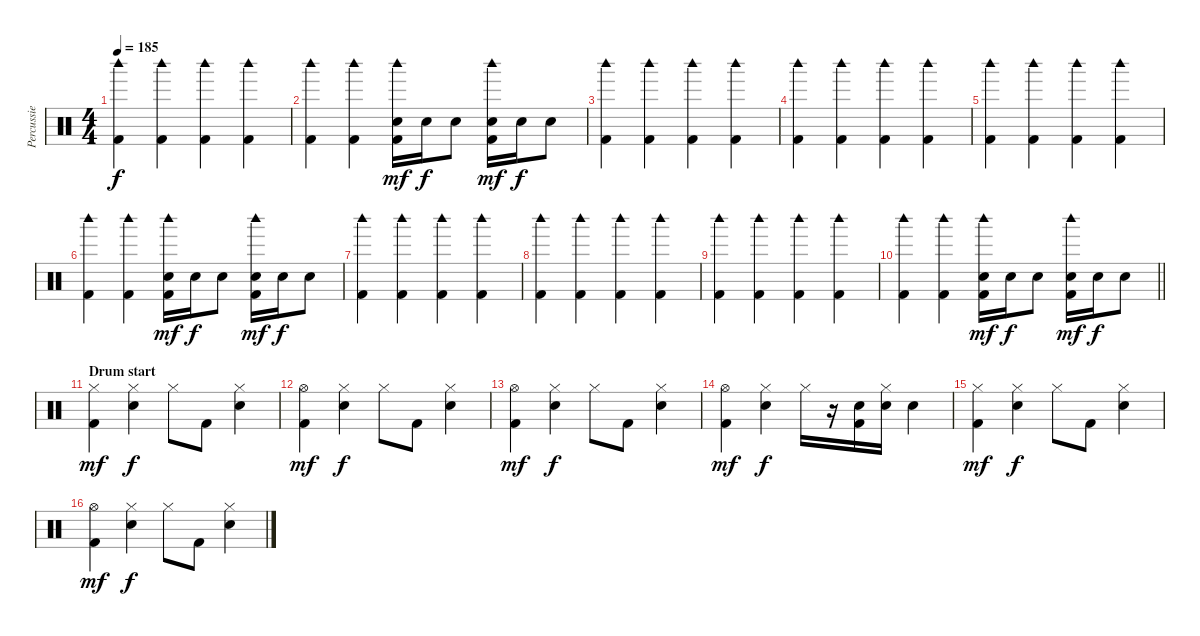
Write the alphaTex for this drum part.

\track ("Percussie" "Percussie") {instrument percussion}
\staff {score}
\articulation defaults
\ts (4 4)
\tempo 185
\clef neutral
\ks c
("Woodblock high (hit)" "Kick (hit) 2").4{dy f} ("Woodblock high (hit)" "Kick (hit) 2").4 ("Woodblock high (hit)" "Kick (hit) 2").4 ("Woodblock high (hit)" "Kick (hit) 2").4 |
("Woodblock high (hit)" "Kick (hit) 2").4 ("Woodblock high (hit)" "Kick (hit) 2").4 ("Woodblock high (hit)" "Electric Snare (hit)" "Kick (hit) 2").16{dy mf} "Electric Snare (hit)".16{dy f} "Electric Snare (hit)".8 ("Woodblock high (hit)" "Electric Snare (hit)" "Kick (hit) 2").16{dy mf} "Electric Snare (hit)".16{dy f} "Electric Snare (hit)".8 |
("Woodblock high (hit)" "Kick (hit) 2").4 ("Woodblock high (hit)" "Kick (hit) 2").4 ("Woodblock high (hit)" "Kick (hit) 2").4 ("Woodblock high (hit)" "Kick (hit) 2").4 |
("Woodblock high (hit)" "Kick (hit) 2").4 ("Woodblock high (hit)" "Kick (hit) 2").4 ("Woodblock high (hit)" "Kick (hit) 2").4 ("Woodblock high (hit)" "Kick (hit) 2").4 |
("Woodblock high (hit)" "Kick (hit) 2").4 ("Woodblock high (hit)" "Kick (hit) 2").4 ("Woodblock high (hit)" "Kick (hit) 2").4 ("Woodblock high (hit)" "Kick (hit) 2").4 |
("Woodblock high (hit)" "Kick (hit) 2").4 ("Woodblock high (hit)" "Kick (hit) 2").4 ("Woodblock high (hit)" "Electric Snare (hit)" "Kick (hit) 2").16{dy mf} "Electric Snare (hit)".16{dy f} "Electric Snare (hit)".8 ("Woodblock high (hit)" "Electric Snare (hit)" "Kick (hit) 2").16{dy mf} "Electric Snare (hit)".16{dy f} "Electric Snare (hit)".8 |
("Woodblock high (hit)" "Kick (hit) 2").4 ("Woodblock high (hit)" "Kick (hit) 2").4 ("Woodblock high (hit)" "Kick (hit) 2").4 ("Woodblock high (hit)" "Kick (hit) 2").4 |
("Woodblock high (hit)" "Kick (hit) 2").4 ("Woodblock high (hit)" "Kick (hit) 2").4 ("Woodblock high (hit)" "Kick (hit) 2").4 ("Woodblock high (hit)" "Kick (hit) 2").4 |
("Woodblock high (hit)" "Kick (hit) 2").4 ("Woodblock high (hit)" "Kick (hit) 2").4 ("Woodblock high (hit)" "Kick (hit) 2").4 ("Woodblock high (hit)" "Kick (hit) 2").4 |
\barLineRight lightlight
("Woodblock high (hit)" "Kick (hit) 2").4 ("Woodblock high (hit)" "Kick (hit) 2").4 ("Woodblock high (hit)" "Electric Snare (hit)" "Kick (hit) 2").16{dy mf} "Electric Snare (hit)".16{dy f} "Electric Snare (hit)".8 ("Woodblock high (hit)" "Electric Snare (hit)" "Kick (hit) 2").16{dy mf} "Electric Snare (hit)".16{dy f} "Electric Snare (hit)".8 |
\section ("" "Drum start")
("Hi-Hat (closed)" "Kick (hit) 2").4{dy mf} ("Hi-Hat (closed)" "Electric Snare (hit)").4{dy f} "Hi-Hat (closed)".8 "Kick (hit) 2".8 ("Hi-Hat (closed)" "Electric Snare (hit)").4 |
("Hi-Hat (open)" "Kick (hit) 2").4{dy mf} ("Hi-Hat (closed)" "Electric Snare (hit)").4{dy f} "Hi-Hat (closed)".8 "Kick (hit) 2".8 ("Hi-Hat (closed)" "Electric Snare (hit)").4 |
("Hi-Hat (open)" "Kick (hit) 2").4{dy mf} ("Hi-Hat (closed)" "Electric Snare (hit)").4{dy f} "Hi-Hat (closed)".8 "Kick (hit) 2".8 ("Hi-Hat (closed)" "Electric Snare (hit)").4 |
("Hi-Hat (open)" "Kick (hit) 2").4{dy mf} ("Hi-Hat (closed)" "Electric Snare (hit)").4{dy f} "Hi-Hat (closed)".16 r.16 ("Electric Snare (hit)" "Kick (hit) 2").16 ("Hi-Hat (closed)" "Electric Snare (hit)").16 "Electric Snare (hit)".4 |
("Hi-Hat (closed)" "Kick (hit) 2").4{dy mf} ("Hi-Hat (closed)" "Electric Snare (hit)").4{dy f} "Hi-Hat (closed)".8 "Kick (hit) 2".8 ("Hi-Hat (closed)" "Electric Snare (hit)").4 |
("Hi-Hat (open)" "Kick (hit) 2").4{dy mf} ("Hi-Hat (closed)" "Electric Snare (hit)").4{dy f} "Hi-Hat (closed)".8 "Kick (hit) 2".8 ("Hi-Hat (closed)" "Electric Snare (hit)").4
